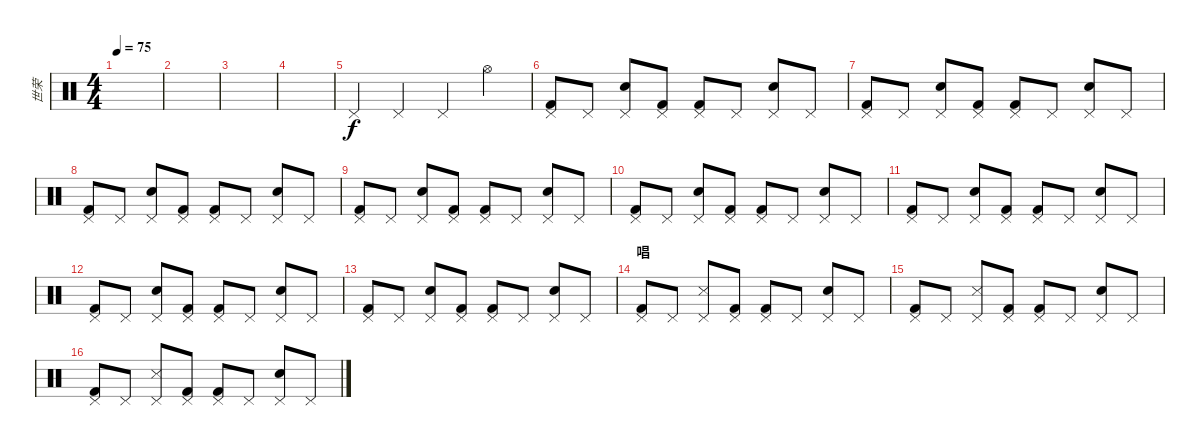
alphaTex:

\track ("世荣" "世荣") {instrument percussion}
\staff {score}
\articulation defaults
\ts (4 4)
\tempo 75
\clef neutral
\ks c
|
|
|
|
"Pedal Hi-Hat (hit)".4 "Pedal Hi-Hat (hit)".4 "Pedal Hi-Hat (hit)".4 "Hi-Hat (open)".4 |
("Pedal Hi-Hat (hit)" "Kick (hit) 2").8 "Pedal Hi-Hat (hit)".8 ("Pedal Hi-Hat (hit)" "Electric Snare (hit)").8 ("Pedal Hi-Hat (hit)" "Kick (hit) 2").8 ("Pedal Hi-Hat (hit)" "Kick (hit) 2").8 "Pedal Hi-Hat (hit)".8 ("Pedal Hi-Hat (hit)" "Electric Snare (hit)").8 "Pedal Hi-Hat (hit)".8 |
("Pedal Hi-Hat (hit)" "Kick (hit) 2").8 "Pedal Hi-Hat (hit)".8 ("Pedal Hi-Hat (hit)" "Electric Snare (hit)").8 ("Pedal Hi-Hat (hit)" "Kick (hit) 2").8 ("Pedal Hi-Hat (hit)" "Kick (hit) 2").8 "Pedal Hi-Hat (hit)".8 ("Pedal Hi-Hat (hit)" "Electric Snare (hit)").8 "Pedal Hi-Hat (hit)".8 |
("Pedal Hi-Hat (hit)" "Kick (hit) 2").8 "Pedal Hi-Hat (hit)".8 ("Pedal Hi-Hat (hit)" "Electric Snare (hit)").8 ("Pedal Hi-Hat (hit)" "Kick (hit) 2").8 ("Pedal Hi-Hat (hit)" "Kick (hit) 2").8 "Pedal Hi-Hat (hit)".8 ("Pedal Hi-Hat (hit)" "Electric Snare (hit)").8 "Pedal Hi-Hat (hit)".8 |
("Pedal Hi-Hat (hit)" "Kick (hit) 2").8 "Pedal Hi-Hat (hit)".8 ("Pedal Hi-Hat (hit)" "Electric Snare (hit)").8 ("Pedal Hi-Hat (hit)" "Kick (hit) 2").8 ("Pedal Hi-Hat (hit)" "Kick (hit) 2").8 "Pedal Hi-Hat (hit)".8 ("Pedal Hi-Hat (hit)" "Electric Snare (hit)").8 "Pedal Hi-Hat (hit)".8 |
("Pedal Hi-Hat (hit)" "Kick (hit) 2").8 "Pedal Hi-Hat (hit)".8 ("Pedal Hi-Hat (hit)" "Electric Snare (hit)").8 ("Pedal Hi-Hat (hit)" "Kick (hit) 2").8 ("Pedal Hi-Hat (hit)" "Kick (hit) 2").8 "Pedal Hi-Hat (hit)".8 ("Pedal Hi-Hat (hit)" "Electric Snare (hit)").8 "Pedal Hi-Hat (hit)".8 |
("Pedal Hi-Hat (hit)" "Kick (hit) 2").8 "Pedal Hi-Hat (hit)".8 ("Pedal Hi-Hat (hit)" "Electric Snare (hit)").8 ("Pedal Hi-Hat (hit)" "Kick (hit) 2").8 ("Pedal Hi-Hat (hit)" "Kick (hit) 2").8 "Pedal Hi-Hat (hit)".8 ("Pedal Hi-Hat (hit)" "Electric Snare (hit)").8 "Pedal Hi-Hat (hit)".8 |
("Pedal Hi-Hat (hit)" "Kick (hit) 2").8 "Pedal Hi-Hat (hit)".8 ("Pedal Hi-Hat (hit)" "Electric Snare (hit)").8 ("Pedal Hi-Hat (hit)" "Kick (hit) 2").8 ("Pedal Hi-Hat (hit)" "Kick (hit) 2").8 "Pedal Hi-Hat (hit)".8 ("Pedal Hi-Hat (hit)" "Electric Snare (hit)").8 "Pedal Hi-Hat (hit)".8 |
("Pedal Hi-Hat (hit)" "Kick (hit) 2").8 "Pedal Hi-Hat (hit)".8 ("Pedal Hi-Hat (hit)" "Electric Snare (hit)").8 ("Pedal Hi-Hat (hit)" "Kick (hit) 2").8 ("Pedal Hi-Hat (hit)" "Kick (hit) 2").8 "Pedal Hi-Hat (hit)".8 ("Pedal Hi-Hat (hit)" "Electric Snare (hit)").8 "Pedal Hi-Hat (hit)".8 |
\section ("" "唱")
("Pedal Hi-Hat (hit)" "Kick (hit) 2").8 "Pedal Hi-Hat (hit)".8 ("Pedal Hi-Hat (hit)" "Snare (side stick) 3").8 ("Pedal Hi-Hat (hit)" "Kick (hit) 2").8 ("Pedal Hi-Hat (hit)" "Kick (hit) 2").8 "Pedal Hi-Hat (hit)".8 ("Pedal Hi-Hat (hit)" "Electric Snare (hit)").8 "Pedal Hi-Hat (hit)".8 |
("Pedal Hi-Hat (hit)" "Kick (hit) 2").8 "Pedal Hi-Hat (hit)".8 ("Pedal Hi-Hat (hit)" "Snare (side stick) 3").8 ("Pedal Hi-Hat (hit)" "Kick (hit) 2").8 ("Pedal Hi-Hat (hit)" "Kick (hit) 2").8 "Pedal Hi-Hat (hit)".8 ("Pedal Hi-Hat (hit)" "Electric Snare (hit)").8 "Pedal Hi-Hat (hit)".8 |
("Pedal Hi-Hat (hit)" "Kick (hit) 2").8 "Pedal Hi-Hat (hit)".8 ("Pedal Hi-Hat (hit)" "Snare (side stick) 3").8 ("Pedal Hi-Hat (hit)" "Kick (hit) 2").8 ("Pedal Hi-Hat (hit)" "Kick (hit) 2").8 "Pedal Hi-Hat (hit)".8 ("Pedal Hi-Hat (hit)" "Electric Snare (hit)").8 "Pedal Hi-Hat (hit)".8
